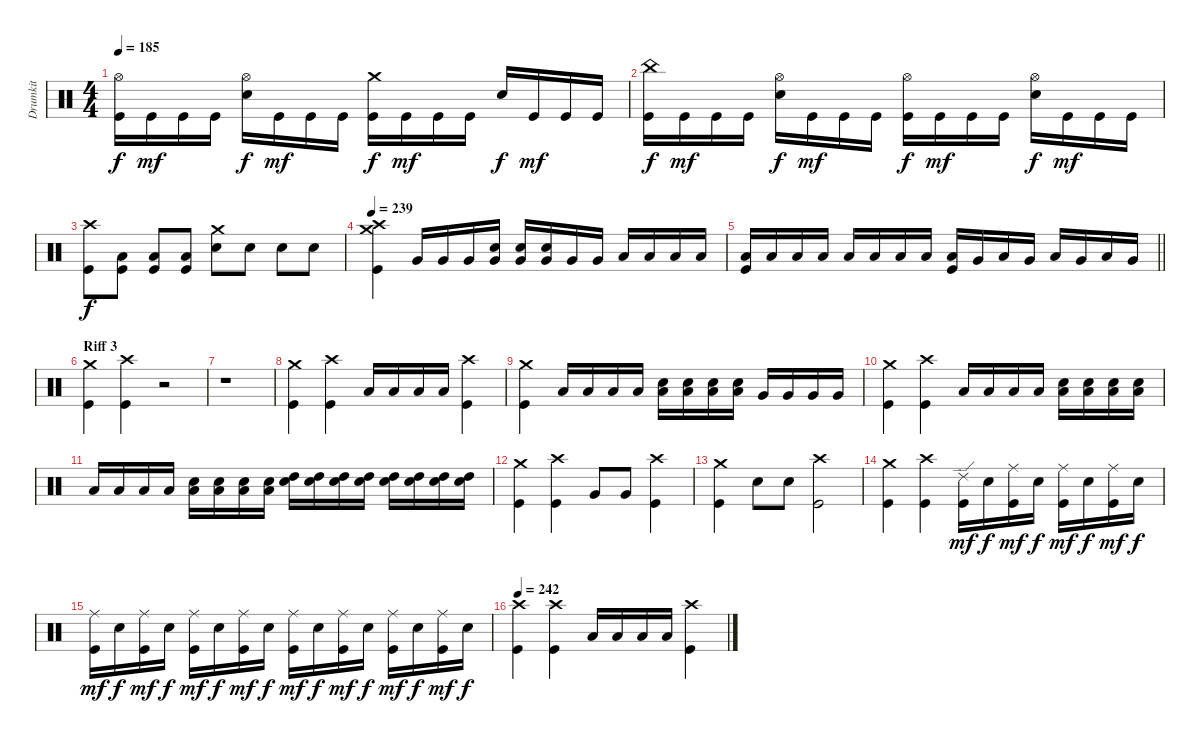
\track ("Drumkit" "Drumkit") {instrument percussion}
\staff {score}
\articulation defaults
\ts (4 4)
\tempo 185
\clef neutral
\ks c
("Kick (hit)" "Hi-Hat (open)").16{dy f} "Kick (hit)".16{dy mf} "Kick (hit)".16 "Kick (hit)".16 ("Snare (hit) 2" "Hi-Hat (open)").16{dy f} "Kick (hit)".16{dy mf} "Kick (hit)".16 "Kick (hit)".16 ("Kick (hit)" "Crash medium (hit)").16{dy f} "Kick (hit)".16{dy mf} "Kick (hit)".16 "Kick (hit)".16 "Snare (hit) 2".16{dy f} "Kick (hit)".16{dy mf} "Kick (hit)".16 "Kick (hit)".16 |
("Kick (hit)" "China (hit)").16{dy f} "Kick (hit)".16{dy mf} "Kick (hit)".16 "Kick (hit)".16 ("Snare (hit) 2" "Hi-Hat (open)").16{dy f} "Kick (hit)".16{dy mf} "Kick (hit)".16 "Kick (hit)".16 ("Kick (hit)" "Hi-Hat (open)").16{dy f} "Kick (hit)".16{dy mf} "Kick (hit)".16 "Kick (hit)".16 ("Snare (hit) 2" "Hi-Hat (open)").16{dy f} "Kick (hit)".16{dy mf} "Kick (hit)".16 "Kick (hit)".16 |
("Kick (hit)" "Crash high (hit)").8{dy f} ("Kick (hit)" "Low Floor Tom (hit)").8 ("Kick (hit)" "Low Floor Tom (hit)").8 ("Kick (hit)" "Low Floor Tom (hit)").8 ("Snare (hit) 2" "Crash medium (hit)").8 "Snare (hit) 2".8 "Snare (hit) 2".8 "Snare (hit) 2".8 |
\tempo 239
("Kick (hit)" "Crash high (hit)" "Crash medium (hit)").4 "Very Low Tom (hit)".16 "Very Low Tom (hit)".16 "Very Low Tom (hit)".16 ("Very Low Tom (hit)" "Snare (hit) 2").16 ("Very Low Tom (hit)" "Snare (hit) 2").16 ("Very Low Tom (hit)" "Snare (hit) 2").16 "Very Low Tom (hit)".16 "Very Low Tom (hit)".16 "Low Tom (hit)".16 "Low Tom (hit)".16 "Low Tom (hit)".16 "Low Tom (hit)".16 |
\barLineRight lightlight
("Low Tom (hit)" "Kick (hit)").16 "Low Tom (hit)".16 "Low Tom (hit)".16 "Low Tom (hit)".16 "Low Tom (hit)".16 "Low Tom (hit)".16 "Low Tom (hit)".16 "Low Tom (hit)".16 ("Low Floor Tom (hit)" "Kick (hit)").16 "Very Low Tom (hit)".16 "Low Floor Tom (hit)".16 "Very Low Tom (hit)".16 "Low Floor Tom (hit)".16 "Very Low Tom (hit)".16 "Low Floor Tom (hit)".16 "Very Low Tom (hit)".16 |
\section ("" "Riff 3")
("Kick (hit)" "Crash medium (hit)").4 ("Kick (hit)" "Crash high (hit)").4 r.2 |
r.1 |
("Kick (hit)" "Crash medium (hit)").4 ("Kick (hit)" "Crash high (hit)").4 "Low Tom (hit)".16 "Low Tom (hit)".16 "Low Tom (hit)".16 "Low Tom (hit)".16 ("Kick (hit)" "Crash high (hit)").4 |
("Kick (hit)" "Crash medium (hit)").4 "Low Tom (hit)".16 "Low Tom (hit)".16 "Low Tom (hit)".16 "Low Tom (hit)".16 ("Snare (hit) 2" "Low Tom (hit)").16 ("Snare (hit) 2" "Low Tom (hit)").16 ("Snare (hit) 2" "Low Tom (hit)").16 ("Snare (hit) 2" "Low Tom (hit)").16 "Very Low Tom (hit)".16 "Very Low Tom (hit)".16 "Very Low Tom (hit)".16 "Very Low Tom (hit)".16 |
("Kick (hit)" "Crash medium (hit)").4 ("Kick (hit)" "Crash high (hit)").4 "Low Tom (hit)".16 "Low Tom (hit)".16 "Low Tom (hit)".16 "Low Tom (hit)".16 ("Snare (hit) 2" "Low Tom (hit)").16 ("Snare (hit) 2" "Low Tom (hit)").16 ("Snare (hit) 2" "Low Tom (hit)").16 ("Snare (hit) 2" "Low Tom (hit)").16 |
"Low Tom (hit)".16 "Low Tom (hit)".16 "Low Tom (hit)".16 "Low Tom (hit)".16 ("Low Tom (hit)" "Snare (hit) 2").16 ("Low Tom (hit)" "Snare (hit) 2").16 ("Low Tom (hit)" "Snare (hit) 2").16 ("Low Tom (hit)" "Snare (hit) 2").16 ("High Tom (hit)" "Snare (hit) 2").16 ("High Tom (hit)" "Snare (hit) 2").16 ("High Tom (hit)" "Snare (hit) 2").16 ("High Tom (hit)" "Snare (hit) 2").16 ("High Tom (hit)" "Snare (hit) 2").16 ("High Tom (hit)" "Snare (hit) 2").16 ("High Tom (hit)" "Snare (hit) 2").16 ("High Tom (hit)" "Snare (hit) 2").16 |
("Kick (hit)" "Crash medium (hit)").4 ("Kick (hit)" "Crash high (hit)").4 "Very Low Tom (hit)".8 "Very Low Tom (hit)".8 ("Kick (hit)" "Crash high (hit)").4 |
("Kick (hit)" "Crash medium (hit)").4 "Snare (hit) 2".8 "Snare (hit) 2".8 ("Kick (hit)" "Crash high (hit)").2 |
("Kick (hit)" "Crash medium (hit)").4 ("Kick (hit)" "Crash high (hit)").4 ("Kick (hit)" "Ride (edge) 2").16{dy mf} "Snare (hit) 2".16{dy f} ("Kick (hit)" "Ride (middle)").16{dy mf} "Snare (hit) 2".16{dy f} ("Kick (hit)" "Ride (middle)").16{dy mf} "Snare (hit) 2".16{dy f} ("Kick (hit)" "Ride (middle)").16{dy mf} "Snare (hit) 2".16{dy f} |
("Kick (hit)" "Ride (middle)").16{dy mf} "Snare (hit) 2".16{dy f} ("Kick (hit)" "Ride (middle)").16{dy mf} "Snare (hit) 2".16{dy f} ("Kick (hit)" "Ride (middle)").16{dy mf} "Snare (hit) 2".16{dy f} ("Kick (hit)" "Ride (middle)").16{dy mf} "Snare (hit) 2".16{dy f} ("Kick (hit)" "Ride (middle)").16{dy mf} "Snare (hit) 2".16{dy f} ("Kick (hit)" "Ride (middle)").16{dy mf} "Snare (hit) 2".16{dy f} ("Kick (hit)" "Ride (middle)").16{dy mf} "Snare (hit) 2".16{dy f} ("Kick (hit)" "Ride (middle)").16{dy mf} "Snare (hit) 2".16{dy f} |
\tempo 242
("Kick (hit)" "Crash high (hit)").4 ("Kick (hit)" "Crash high (hit)").4 "Low Tom (hit)".16 "Low Tom (hit)".16 "Low Tom (hit)".16 "Low Tom (hit)".16 ("Kick (hit)" "Crash high (hit)").4
